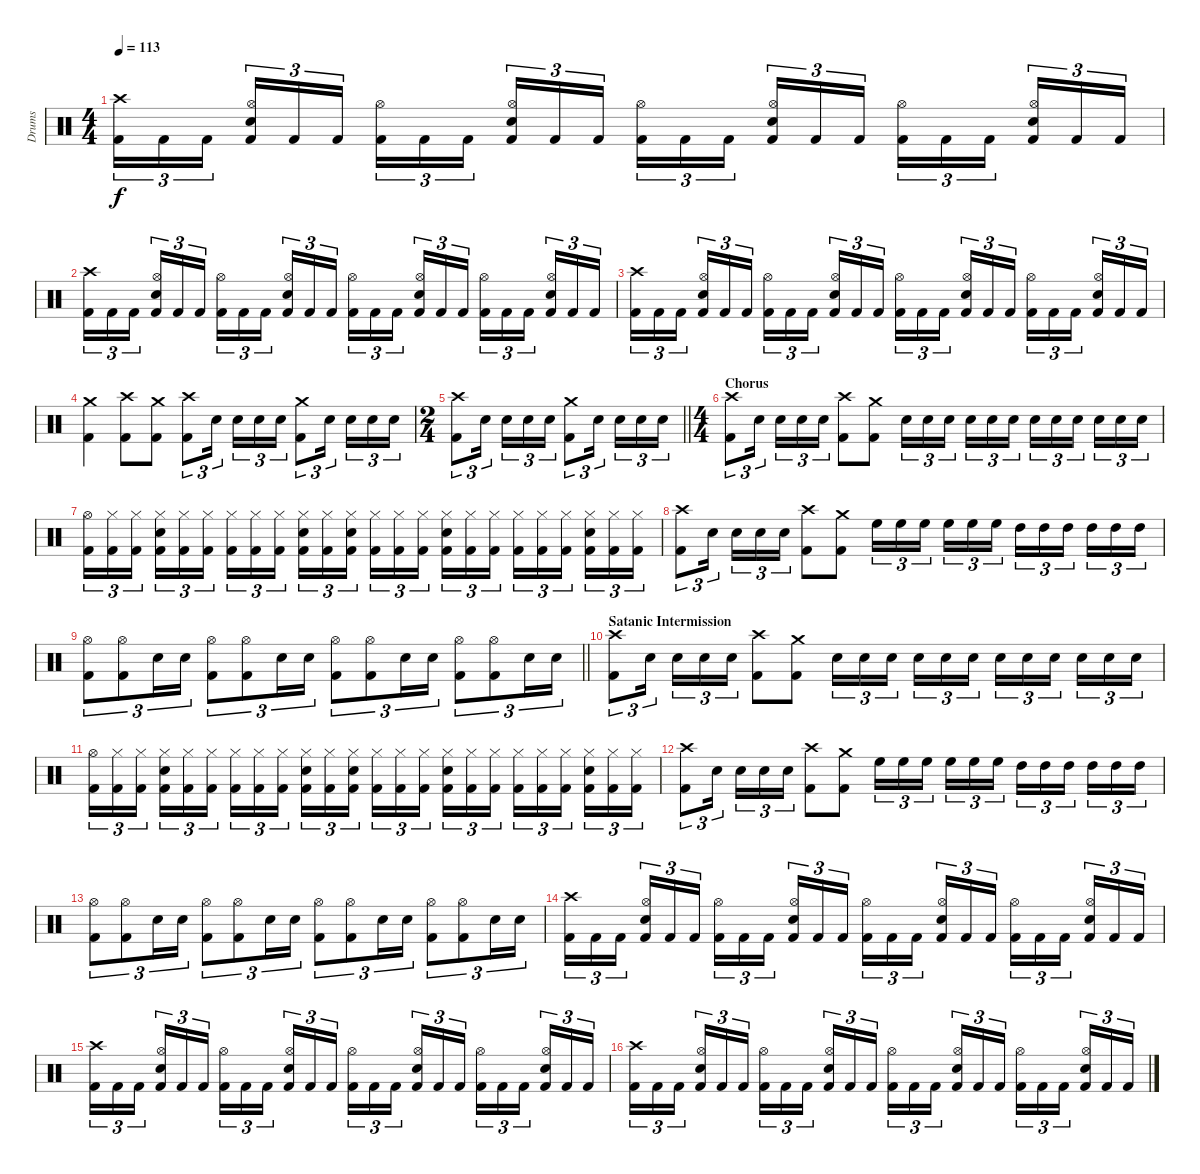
\track ("Drums" "Drums") {instrument percussion}
\staff {score}
\articulation defaults
\ts (4 4)
\tempo 113
\clef neutral
\ks c
("Crash high (hit)" "Kick (hit) 2").16{tu (3 2) dy f} "Kick (hit) 2".16{tu (3 2)} "Kick (hit) 2".16{tu (3 2) beam splitsecondary} ("Hi-Hat (open)" "Snare (hit) 2" "Kick (hit) 2").16{tu (3 2)} "Kick (hit) 2".16{tu (3 2)} "Kick (hit) 2".16{tu (3 2)} ("Hi-Hat (open)" "Kick (hit) 2").16{tu (3 2)} "Kick (hit) 2".16{tu (3 2)} "Kick (hit) 2".16{tu (3 2) beam splitsecondary} ("Hi-Hat (open)" "Snare (hit) 2" "Kick (hit) 2").16{tu (3 2)} "Kick (hit) 2".16{tu (3 2)} "Kick (hit) 2".16{tu (3 2)} ("Hi-Hat (open)" "Kick (hit) 2").16{tu (3 2)} "Kick (hit) 2".16{tu (3 2)} "Kick (hit) 2".16{tu (3 2) beam splitsecondary} ("Hi-Hat (open)" "Snare (hit) 2" "Kick (hit) 2").16{tu (3 2)} "Kick (hit) 2".16{tu (3 2)} "Kick (hit) 2".16{tu (3 2)} ("Hi-Hat (open)" "Kick (hit) 2").16{tu (3 2)} "Kick (hit) 2".16{tu (3 2)} "Kick (hit) 2".16{tu (3 2) beam splitsecondary} ("Hi-Hat (open)" "Snare (hit) 2" "Kick (hit) 2").16{tu (3 2)} "Kick (hit) 2".16{tu (3 2)} "Kick (hit) 2".16{tu (3 2)} |
("Crash high (hit)" "Kick (hit) 2").16{tu (3 2)} "Kick (hit) 2".16{tu (3 2)} "Kick (hit) 2".16{tu (3 2) beam splitsecondary} ("Hi-Hat (open)" "Snare (hit) 2" "Kick (hit) 2").16{tu (3 2)} "Kick (hit) 2".16{tu (3 2)} "Kick (hit) 2".16{tu (3 2)} ("Hi-Hat (open)" "Kick (hit) 2").16{tu (3 2)} "Kick (hit) 2".16{tu (3 2)} "Kick (hit) 2".16{tu (3 2) beam splitsecondary} ("Hi-Hat (open)" "Snare (hit) 2" "Kick (hit) 2").16{tu (3 2)} "Kick (hit) 2".16{tu (3 2)} "Kick (hit) 2".16{tu (3 2)} ("Hi-Hat (open)" "Kick (hit) 2").16{tu (3 2)} "Kick (hit) 2".16{tu (3 2)} "Kick (hit) 2".16{tu (3 2) beam splitsecondary} ("Hi-Hat (open)" "Snare (hit) 2" "Kick (hit) 2").16{tu (3 2)} "Kick (hit) 2".16{tu (3 2)} "Kick (hit) 2".16{tu (3 2)} ("Hi-Hat (open)" "Kick (hit) 2").16{tu (3 2)} "Kick (hit) 2".16{tu (3 2)} "Kick (hit) 2".16{tu (3 2) beam splitsecondary} ("Hi-Hat (open)" "Snare (hit) 2" "Kick (hit) 2").16{tu (3 2)} "Kick (hit) 2".16{tu (3 2)} "Kick (hit) 2".16{tu (3 2)} |
("Crash high (hit)" "Kick (hit) 2").16{tu (3 2)} "Kick (hit) 2".16{tu (3 2)} "Kick (hit) 2".16{tu (3 2) beam splitsecondary} ("Hi-Hat (open)" "Snare (hit) 2" "Kick (hit) 2").16{tu (3 2)} "Kick (hit) 2".16{tu (3 2)} "Kick (hit) 2".16{tu (3 2)} ("Hi-Hat (open)" "Kick (hit) 2").16{tu (3 2)} "Kick (hit) 2".16{tu (3 2)} "Kick (hit) 2".16{tu (3 2) beam splitsecondary} ("Hi-Hat (open)" "Snare (hit) 2" "Kick (hit) 2").16{tu (3 2)} "Kick (hit) 2".16{tu (3 2)} "Kick (hit) 2".16{tu (3 2)} ("Hi-Hat (open)" "Kick (hit) 2").16{tu (3 2)} "Kick (hit) 2".16{tu (3 2)} "Kick (hit) 2".16{tu (3 2) beam splitsecondary} ("Hi-Hat (open)" "Snare (hit) 2" "Kick (hit) 2").16{tu (3 2)} "Kick (hit) 2".16{tu (3 2)} "Kick (hit) 2".16{tu (3 2)} ("Hi-Hat (open)" "Kick (hit) 2").16{tu (3 2)} "Kick (hit) 2".16{tu (3 2)} "Kick (hit) 2".16{tu (3 2) beam splitsecondary} ("Hi-Hat (open)" "Snare (hit) 2" "Kick (hit) 2").16{tu (3 2)} "Kick (hit) 2".16{tu (3 2)} "Kick (hit) 2".16{tu (3 2)} |
("Crash medium (hit)" "Kick (hit) 2").4 ("Crash high (hit)" "Kick (hit) 2").8 ("Crash medium (hit)" "Kick (hit) 2").8 ("Crash high (hit)" "Kick (hit) 2").8{tu (3 2)} "Snare (hit) 2".16{tu (3 2) beam splitsecondary} "Snare (hit) 2".16{tu (3 2)} "Snare (hit) 2".16{tu (3 2)} "Snare (hit) 2".16{tu (3 2)} ("Crash medium (hit)" "Kick (hit) 2").8{tu (3 2)} "Snare (hit) 2".16{tu (3 2) beam splitsecondary} "Snare (hit) 2".16{tu (3 2)} "Snare (hit) 2".16{tu (3 2)} "Snare (hit) 2".16{tu (3 2)} |
\ts (2 4)
\barLineRight lightlight
("Crash high (hit)" "Kick (hit) 2").8{tu (3 2)} "Snare (hit) 2".16{tu (3 2) beam splitsecondary} "Snare (hit) 2".16{tu (3 2)} "Snare (hit) 2".16{tu (3 2)} "Snare (hit) 2".16{tu (3 2)} ("Crash medium (hit)" "Kick (hit) 2").8{tu (3 2)} "Snare (hit) 2".16{tu (3 2) beam splitsecondary} "Snare (hit) 2".16{tu (3 2)} "Snare (hit) 2".16{tu (3 2)} "Snare (hit) 2".16{tu (3 2)} |
\ts (4 4)
\section ("" "Chorus")
("Crash high (hit)" "Kick (hit) 2").8{tu (3 2)} "Snare (hit) 2".16{tu (3 2) beam splitsecondary} "Snare (hit) 2".16{tu (3 2)} "Snare (hit) 2".16{tu (3 2)} "Snare (hit) 2".16{tu (3 2)} ("Crash high (hit)" "Kick (hit) 2").8 ("Crash medium (hit)" "Kick (hit) 2").8 "Snare (hit) 2".16{tu (3 2)} "Snare (hit) 2".16{tu (3 2)} "Snare (hit) 2".16{tu (3 2) beam splitsecondary} "Snare (hit) 2".16{tu (3 2)} "Snare (hit) 2".16{tu (3 2)} "Snare (hit) 2".16{tu (3 2)} "Snare (hit) 2".16{tu (3 2)} "Snare (hit) 2".16{tu (3 2)} "Snare (hit) 2".16{tu (3 2) beam splitsecondary} "Snare (hit) 2".16{tu (3 2)} "Snare (hit) 2".16{tu (3 2)} "Snare (hit) 2".16{tu (3 2)} |
("Hi-Hat (open)" "Kick (hit) 2").16{tu (3 2)} ("Hi-Hat (closed)" "Kick (hit) 2").16{tu (3 2)} ("Hi-Hat (closed)" "Kick (hit) 2").16{tu (3 2) beam splitsecondary} ("Snare (hit) 2" "Hi-Hat (closed)" "Kick (hit) 2").16{tu (3 2)} ("Hi-Hat (closed)" "Kick (hit) 2").16{tu (3 2)} ("Hi-Hat (closed)" "Kick (hit) 2").16{tu (3 2)} ("Hi-Hat (closed)" "Kick (hit) 2").16{tu (3 2)} ("Hi-Hat (closed)" "Kick (hit) 2").16{tu (3 2)} ("Hi-Hat (closed)" "Kick (hit) 2").16{tu (3 2) beam splitsecondary} ("Snare (hit) 2" "Hi-Hat (closed)" "Kick (hit) 2").16{tu (3 2)} ("Hi-Hat (closed)" "Kick (hit) 2").16{tu (3 2)} ("Snare (hit) 2" "Hi-Hat (closed)" "Kick (hit) 2").16{tu (3 2)} ("Hi-Hat (closed)" "Kick (hit) 2").16{tu (3 2)} ("Hi-Hat (closed)" "Kick (hit) 2").16{tu (3 2)} ("Hi-Hat (closed)" "Kick (hit) 2").16{tu (3 2) beam splitsecondary} ("Snare (hit) 2" "Hi-Hat (closed)" "Kick (hit) 2").16{tu (3 2)} ("Hi-Hat (closed)" "Kick (hit) 2").16{tu (3 2)} ("Hi-Hat (closed)" "Kick (hit) 2").16{tu (3 2)} ("Hi-Hat (closed)" "Kick (hit) 2").16{tu (3 2)} ("Hi-Hat (closed)" "Kick (hit) 2").16{tu (3 2)} ("Hi-Hat (closed)" "Kick (hit) 2").16{tu (3 2) beam splitsecondary} ("Snare (hit) 2" "Hi-Hat (closed)" "Kick (hit) 2").16{tu (3 2)} ("Hi-Hat (closed)" "Kick (hit) 2").16{tu (3 2)} ("Hi-Hat (closed)" "Kick (hit) 2").16{tu (3 2)} |
("Crash high (hit)" "Kick (hit) 2").8{tu (3 2)} "Snare (hit) 2".16{tu (3 2) beam splitsecondary} "Snare (hit) 2".16{tu (3 2)} "Snare (hit) 2".16{tu (3 2)} "Snare (hit) 2".16{tu (3 2)} ("Crash high (hit)" "Kick (hit) 2").8 ("Crash medium (hit)" "Kick (hit) 2").8 "High Floor Tom (hit)".16{tu (3 2)} "High Floor Tom (hit)".16{tu (3 2)} "High Floor Tom (hit)".16{tu (3 2) beam splitsecondary} "High Floor Tom (hit)".16{tu (3 2)} "High Floor Tom (hit)".16{tu (3 2)} "High Floor Tom (hit)".16{tu (3 2)} "High Tom (hit)".16{tu (3 2)} "High Tom (hit)".16{tu (3 2)} "High Tom (hit)".16{tu (3 2) beam splitsecondary} "High Tom (hit)".16{tu (3 2)} "High Tom (hit)".16{tu (3 2)} "High Tom (hit)".16{tu (3 2)} |
\barLineRight lightlight
("Hi-Hat (open)" "Kick (hit) 2").8{tu (3 2)} ("Hi-Hat (open)" "Kick (hit) 2").8{tu (3 2)} "Snare (hit) 2".16{tu (3 2)} "Snare (hit) 2".16{tu (3 2)} ("Hi-Hat (open)" "Kick (hit) 2").8{tu (3 2)} ("Hi-Hat (open)" "Kick (hit) 2").8{tu (3 2)} "Snare (hit) 2".16{tu (3 2)} "Snare (hit) 2".16{tu (3 2)} ("Hi-Hat (open)" "Kick (hit) 2").8{tu (3 2)} ("Hi-Hat (open)" "Kick (hit) 2").8{tu (3 2)} "Snare (hit) 2".16{tu (3 2)} "Snare (hit) 2".16{tu (3 2)} ("Hi-Hat (open)" "Kick (hit) 2").8{tu (3 2)} ("Hi-Hat (open)" "Kick (hit) 2").8{tu (3 2)} "Snare (hit) 2".16{tu (3 2)} "Snare (hit) 2".16{tu (3 2)} |
\section ("" "Satanic Intermission")
("Crash high (hit)" "Kick (hit) 2").8{tu (3 2)} "Snare (hit) 2".16{tu (3 2) beam splitsecondary} "Snare (hit) 2".16{tu (3 2)} "Snare (hit) 2".16{tu (3 2)} "Snare (hit) 2".16{tu (3 2)} ("Crash high (hit)" "Kick (hit) 2").8 ("Crash medium (hit)" "Kick (hit) 2").8 "Snare (hit) 2".16{tu (3 2)} "Snare (hit) 2".16{tu (3 2)} "Snare (hit) 2".16{tu (3 2) beam splitsecondary} "Snare (hit) 2".16{tu (3 2)} "Snare (hit) 2".16{tu (3 2)} "Snare (hit) 2".16{tu (3 2)} "Snare (hit) 2".16{tu (3 2)} "Snare (hit) 2".16{tu (3 2)} "Snare (hit) 2".16{tu (3 2) beam splitsecondary} "Snare (hit) 2".16{tu (3 2)} "Snare (hit) 2".16{tu (3 2)} "Snare (hit) 2".16{tu (3 2)} |
("Hi-Hat (open)" "Kick (hit) 2").16{tu (3 2)} ("Hi-Hat (closed)" "Kick (hit) 2").16{tu (3 2)} ("Hi-Hat (closed)" "Kick (hit) 2").16{tu (3 2) beam splitsecondary} ("Snare (hit) 2" "Hi-Hat (closed)" "Kick (hit) 2").16{tu (3 2)} ("Hi-Hat (closed)" "Kick (hit) 2").16{tu (3 2)} ("Hi-Hat (closed)" "Kick (hit) 2").16{tu (3 2)} ("Hi-Hat (closed)" "Kick (hit) 2").16{tu (3 2)} ("Hi-Hat (closed)" "Kick (hit) 2").16{tu (3 2)} ("Hi-Hat (closed)" "Kick (hit) 2").16{tu (3 2) beam splitsecondary} ("Snare (hit) 2" "Hi-Hat (closed)" "Kick (hit) 2").16{tu (3 2)} ("Hi-Hat (closed)" "Kick (hit) 2").16{tu (3 2)} ("Snare (hit) 2" "Hi-Hat (closed)" "Kick (hit) 2").16{tu (3 2)} ("Hi-Hat (closed)" "Kick (hit) 2").16{tu (3 2)} ("Hi-Hat (closed)" "Kick (hit) 2").16{tu (3 2)} ("Hi-Hat (closed)" "Kick (hit) 2").16{tu (3 2) beam splitsecondary} ("Snare (hit) 2" "Hi-Hat (closed)" "Kick (hit) 2").16{tu (3 2)} ("Hi-Hat (closed)" "Kick (hit) 2").16{tu (3 2)} ("Hi-Hat (closed)" "Kick (hit) 2").16{tu (3 2)} ("Hi-Hat (closed)" "Kick (hit) 2").16{tu (3 2)} ("Hi-Hat (closed)" "Kick (hit) 2").16{tu (3 2)} ("Hi-Hat (closed)" "Kick (hit) 2").16{tu (3 2) beam splitsecondary} ("Snare (hit) 2" "Hi-Hat (closed)" "Kick (hit) 2").16{tu (3 2)} ("Hi-Hat (closed)" "Kick (hit) 2").16{tu (3 2)} ("Hi-Hat (closed)" "Kick (hit) 2").16{tu (3 2)} |
("Crash high (hit)" "Kick (hit) 2").8{tu (3 2)} "Snare (hit) 2".16{tu (3 2) beam splitsecondary} "Snare (hit) 2".16{tu (3 2)} "Snare (hit) 2".16{tu (3 2)} "Snare (hit) 2".16{tu (3 2)} ("Crash high (hit)" "Kick (hit) 2").8 ("Crash medium (hit)" "Kick (hit) 2").8 "High Floor Tom (hit)".16{tu (3 2)} "High Floor Tom (hit)".16{tu (3 2)} "High Floor Tom (hit)".16{tu (3 2) beam splitsecondary} "High Floor Tom (hit)".16{tu (3 2)} "High Floor Tom (hit)".16{tu (3 2)} "High Floor Tom (hit)".16{tu (3 2)} "High Tom (hit)".16{tu (3 2)} "High Tom (hit)".16{tu (3 2)} "High Tom (hit)".16{tu (3 2) beam splitsecondary} "High Tom (hit)".16{tu (3 2)} "High Tom (hit)".16{tu (3 2)} "High Tom (hit)".16{tu (3 2)} |
("Hi-Hat (open)" "Kick (hit) 2").8{tu (3 2)} ("Hi-Hat (open)" "Kick (hit) 2").8{tu (3 2)} "Snare (hit) 2".16{tu (3 2)} "Snare (hit) 2".16{tu (3 2)} ("Hi-Hat (open)" "Kick (hit) 2").8{tu (3 2)} ("Hi-Hat (open)" "Kick (hit) 2").8{tu (3 2)} "Snare (hit) 2".16{tu (3 2)} "Snare (hit) 2".16{tu (3 2)} ("Hi-Hat (open)" "Kick (hit) 2").8{tu (3 2)} ("Hi-Hat (open)" "Kick (hit) 2").8{tu (3 2)} "Snare (hit) 2".16{tu (3 2)} "Snare (hit) 2".16{tu (3 2)} ("Hi-Hat (open)" "Kick (hit) 2").8{tu (3 2)} ("Hi-Hat (open)" "Kick (hit) 2").8{tu (3 2)} "Snare (hit) 2".16{tu (3 2)} "Snare (hit) 2".16{tu (3 2)} |
("Crash high (hit)" "Kick (hit) 2").16{tu (3 2)} "Kick (hit) 2".16{tu (3 2)} "Kick (hit) 2".16{tu (3 2) beam splitsecondary} ("Hi-Hat (open)" "Snare (hit) 2" "Kick (hit) 2").16{tu (3 2)} "Kick (hit) 2".16{tu (3 2)} "Kick (hit) 2".16{tu (3 2)} ("Hi-Hat (open)" "Kick (hit) 2").16{tu (3 2)} "Kick (hit) 2".16{tu (3 2)} "Kick (hit) 2".16{tu (3 2) beam splitsecondary} ("Hi-Hat (open)" "Snare (hit) 2" "Kick (hit) 2").16{tu (3 2)} "Kick (hit) 2".16{tu (3 2)} "Kick (hit) 2".16{tu (3 2)} ("Hi-Hat (open)" "Kick (hit) 2").16{tu (3 2)} "Kick (hit) 2".16{tu (3 2)} "Kick (hit) 2".16{tu (3 2) beam splitsecondary} ("Hi-Hat (open)" "Snare (hit) 2" "Kick (hit) 2").16{tu (3 2)} "Kick (hit) 2".16{tu (3 2)} "Kick (hit) 2".16{tu (3 2)} ("Hi-Hat (open)" "Kick (hit) 2").16{tu (3 2)} "Kick (hit) 2".16{tu (3 2)} "Kick (hit) 2".16{tu (3 2) beam splitsecondary} ("Hi-Hat (open)" "Snare (hit) 2" "Kick (hit) 2").16{tu (3 2)} "Kick (hit) 2".16{tu (3 2)} "Kick (hit) 2".16{tu (3 2)} |
("Crash high (hit)" "Kick (hit) 2").16{tu (3 2)} "Kick (hit) 2".16{tu (3 2)} "Kick (hit) 2".16{tu (3 2) beam splitsecondary} ("Hi-Hat (open)" "Snare (hit) 2" "Kick (hit) 2").16{tu (3 2)} "Kick (hit) 2".16{tu (3 2)} "Kick (hit) 2".16{tu (3 2)} ("Hi-Hat (open)" "Kick (hit) 2").16{tu (3 2)} "Kick (hit) 2".16{tu (3 2)} "Kick (hit) 2".16{tu (3 2) beam splitsecondary} ("Hi-Hat (open)" "Snare (hit) 2" "Kick (hit) 2").16{tu (3 2)} "Kick (hit) 2".16{tu (3 2)} "Kick (hit) 2".16{tu (3 2)} ("Hi-Hat (open)" "Kick (hit) 2").16{tu (3 2)} "Kick (hit) 2".16{tu (3 2)} "Kick (hit) 2".16{tu (3 2) beam splitsecondary} ("Hi-Hat (open)" "Snare (hit) 2" "Kick (hit) 2").16{tu (3 2)} "Kick (hit) 2".16{tu (3 2)} "Kick (hit) 2".16{tu (3 2)} ("Hi-Hat (open)" "Kick (hit) 2").16{tu (3 2)} "Kick (hit) 2".16{tu (3 2)} "Kick (hit) 2".16{tu (3 2) beam splitsecondary} ("Hi-Hat (open)" "Snare (hit) 2" "Kick (hit) 2").16{tu (3 2)} "Kick (hit) 2".16{tu (3 2)} "Kick (hit) 2".16{tu (3 2)} |
("Crash high (hit)" "Kick (hit) 2").16{tu (3 2)} "Kick (hit) 2".16{tu (3 2)} "Kick (hit) 2".16{tu (3 2) beam splitsecondary} ("Hi-Hat (open)" "Snare (hit) 2" "Kick (hit) 2").16{tu (3 2)} "Kick (hit) 2".16{tu (3 2)} "Kick (hit) 2".16{tu (3 2)} ("Hi-Hat (open)" "Kick (hit) 2").16{tu (3 2)} "Kick (hit) 2".16{tu (3 2)} "Kick (hit) 2".16{tu (3 2) beam splitsecondary} ("Hi-Hat (open)" "Snare (hit) 2" "Kick (hit) 2").16{tu (3 2)} "Kick (hit) 2".16{tu (3 2)} "Kick (hit) 2".16{tu (3 2)} ("Hi-Hat (open)" "Kick (hit) 2").16{tu (3 2)} "Kick (hit) 2".16{tu (3 2)} "Kick (hit) 2".16{tu (3 2) beam splitsecondary} ("Hi-Hat (open)" "Snare (hit) 2" "Kick (hit) 2").16{tu (3 2)} "Kick (hit) 2".16{tu (3 2)} "Kick (hit) 2".16{tu (3 2)} ("Hi-Hat (open)" "Kick (hit) 2").16{tu (3 2)} "Kick (hit) 2".16{tu (3 2)} "Kick (hit) 2".16{tu (3 2) beam splitsecondary} ("Hi-Hat (open)" "Snare (hit) 2" "Kick (hit) 2").16{tu (3 2)} "Kick (hit) 2".16{tu (3 2)} "Kick (hit) 2".16{tu (3 2)}
